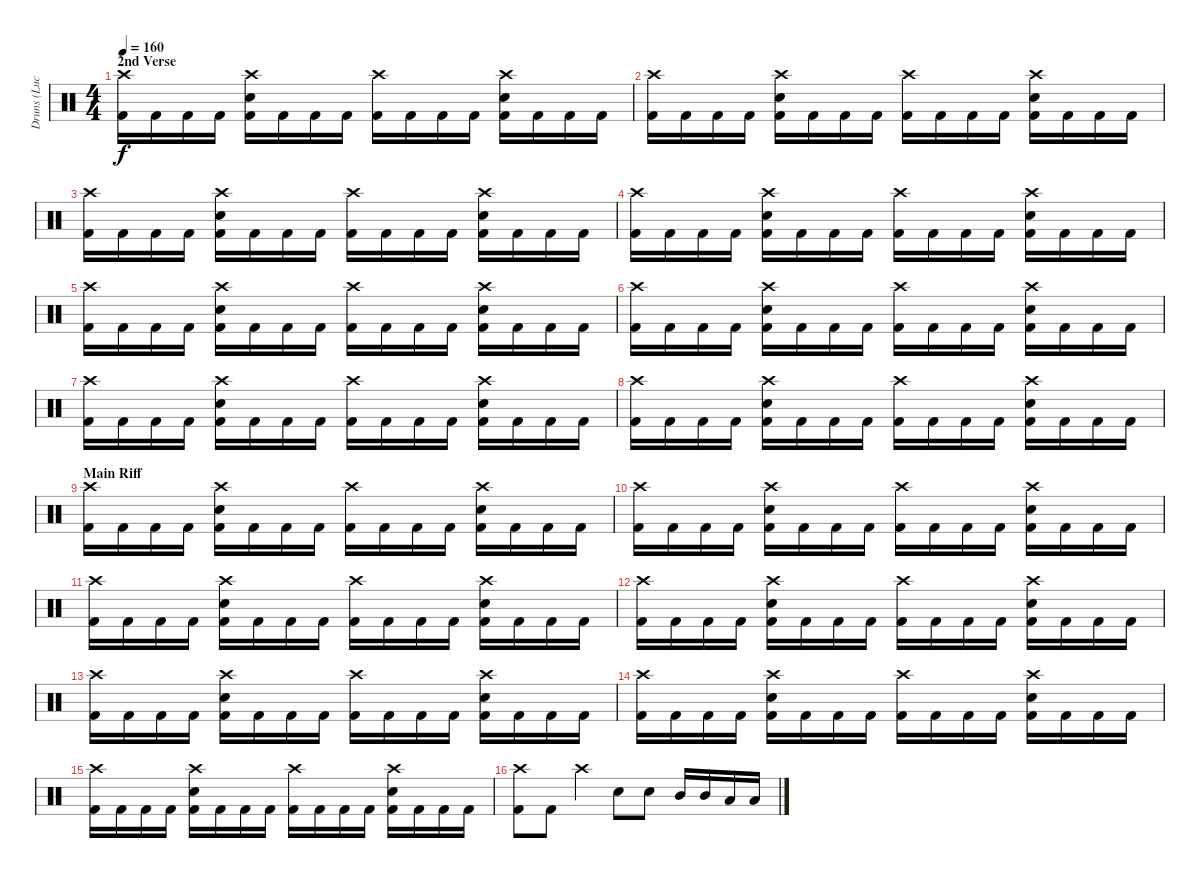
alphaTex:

\track ("Druns (Lucas Zigarti)" "Druns (Luc") {instrument percussion}
\staff {score}
\articulation defaults
\ts (4 4)
\section ("" "2nd Verse ")
\tempo 160
\clef neutral
\ks c
("Crash high (hit)" "Kick (hit) 2").16{dy f} "Kick (hit) 2".16 "Kick (hit) 2".16 "Kick (hit) 2".16 ("Electric Snare (hit)" "Crash high (hit)" "Kick (hit) 2").16 "Kick (hit) 2".16 "Kick (hit) 2".16 "Kick (hit) 2".16 ("Crash high (hit)" "Kick (hit) 2").16 "Kick (hit) 2".16 "Kick (hit) 2".16 "Kick (hit) 2".16 ("Electric Snare (hit)" "Crash high (hit)" "Kick (hit) 2").16 "Kick (hit) 2".16 "Kick (hit) 2".16 "Kick (hit) 2".16 |
("Crash high (hit)" "Kick (hit) 2").16 "Kick (hit) 2".16 "Kick (hit) 2".16 "Kick (hit) 2".16 ("Electric Snare (hit)" "Crash high (hit)" "Kick (hit) 2").16 "Kick (hit) 2".16 "Kick (hit) 2".16 "Kick (hit) 2".16 ("Crash high (hit)" "Kick (hit) 2").16 "Kick (hit) 2".16 "Kick (hit) 2".16 "Kick (hit) 2".16 ("Electric Snare (hit)" "Crash high (hit)" "Kick (hit) 2").16 "Kick (hit) 2".16 "Kick (hit) 2".16 "Kick (hit) 2".16 |
("Crash high (hit)" "Kick (hit) 2").16 "Kick (hit) 2".16 "Kick (hit) 2".16 "Kick (hit) 2".16 ("Electric Snare (hit)" "Crash high (hit)" "Kick (hit) 2").16 "Kick (hit) 2".16 "Kick (hit) 2".16 "Kick (hit) 2".16 ("Crash high (hit)" "Kick (hit) 2").16 "Kick (hit) 2".16 "Kick (hit) 2".16 "Kick (hit) 2".16 ("Electric Snare (hit)" "Crash high (hit)" "Kick (hit) 2").16 "Kick (hit) 2".16 "Kick (hit) 2".16 "Kick (hit) 2".16 |
("Crash high (hit)" "Kick (hit) 2").16 "Kick (hit) 2".16 "Kick (hit) 2".16 "Kick (hit) 2".16 ("Electric Snare (hit)" "Crash high (hit)" "Kick (hit) 2").16 "Kick (hit) 2".16 "Kick (hit) 2".16 "Kick (hit) 2".16 ("Crash high (hit)" "Kick (hit) 2").16 "Kick (hit) 2".16 "Kick (hit) 2".16 "Kick (hit) 2".16 ("Electric Snare (hit)" "Crash high (hit)" "Kick (hit) 2").16 "Kick (hit) 2".16 "Kick (hit) 2".16 "Kick (hit) 2".16 |
("Crash high (hit)" "Kick (hit) 2").16 "Kick (hit) 2".16 "Kick (hit) 2".16 "Kick (hit) 2".16 ("Electric Snare (hit)" "Crash high (hit)" "Kick (hit) 2").16 "Kick (hit) 2".16 "Kick (hit) 2".16 "Kick (hit) 2".16 ("Crash high (hit)" "Kick (hit) 2").16 "Kick (hit) 2".16 "Kick (hit) 2".16 "Kick (hit) 2".16 ("Electric Snare (hit)" "Crash high (hit)" "Kick (hit) 2").16 "Kick (hit) 2".16 "Kick (hit) 2".16 "Kick (hit) 2".16 |
("Crash high (hit)" "Kick (hit) 2").16 "Kick (hit) 2".16 "Kick (hit) 2".16 "Kick (hit) 2".16 ("Electric Snare (hit)" "Crash high (hit)" "Kick (hit) 2").16 "Kick (hit) 2".16 "Kick (hit) 2".16 "Kick (hit) 2".16 ("Crash high (hit)" "Kick (hit) 2").16 "Kick (hit) 2".16 "Kick (hit) 2".16 "Kick (hit) 2".16 ("Electric Snare (hit)" "Crash high (hit)" "Kick (hit) 2").16 "Kick (hit) 2".16 "Kick (hit) 2".16 "Kick (hit) 2".16 |
("Crash high (hit)" "Kick (hit) 2").16 "Kick (hit) 2".16 "Kick (hit) 2".16 "Kick (hit) 2".16 ("Electric Snare (hit)" "Crash high (hit)" "Kick (hit) 2").16 "Kick (hit) 2".16 "Kick (hit) 2".16 "Kick (hit) 2".16 ("Crash high (hit)" "Kick (hit) 2").16 "Kick (hit) 2".16 "Kick (hit) 2".16 "Kick (hit) 2".16 ("Electric Snare (hit)" "Crash high (hit)" "Kick (hit) 2").16 "Kick (hit) 2".16 "Kick (hit) 2".16 "Kick (hit) 2".16 |
("Crash high (hit)" "Kick (hit) 2").16 "Kick (hit) 2".16 "Kick (hit) 2".16 "Kick (hit) 2".16 ("Electric Snare (hit)" "Crash high (hit)" "Kick (hit) 2").16 "Kick (hit) 2".16 "Kick (hit) 2".16 "Kick (hit) 2".16 ("Crash high (hit)" "Kick (hit) 2").16 "Kick (hit) 2".16 "Kick (hit) 2".16 "Kick (hit) 2".16 ("Electric Snare (hit)" "Crash high (hit)" "Kick (hit) 2").16 "Kick (hit) 2".16 "Kick (hit) 2".16 "Kick (hit) 2".16 |
\section ("" "Main Riff")
("Crash high (hit)" "Kick (hit) 2").16 "Kick (hit) 2".16 "Kick (hit) 2".16 "Kick (hit) 2".16 ("Electric Snare (hit)" "Crash high (hit)" "Kick (hit) 2").16 "Kick (hit) 2".16 "Kick (hit) 2".16 "Kick (hit) 2".16 ("Crash high (hit)" "Kick (hit) 2").16 "Kick (hit) 2".16 "Kick (hit) 2".16 "Kick (hit) 2".16 ("Electric Snare (hit)" "Crash high (hit)" "Kick (hit) 2").16 "Kick (hit) 2".16 "Kick (hit) 2".16 "Kick (hit) 2".16 |
("Crash high (hit)" "Kick (hit) 2").16 "Kick (hit) 2".16 "Kick (hit) 2".16 "Kick (hit) 2".16 ("Electric Snare (hit)" "Crash high (hit)" "Kick (hit) 2").16 "Kick (hit) 2".16 "Kick (hit) 2".16 "Kick (hit) 2".16 ("Crash high (hit)" "Kick (hit) 2").16 "Kick (hit) 2".16 "Kick (hit) 2".16 "Kick (hit) 2".16 ("Electric Snare (hit)" "Crash high (hit)" "Kick (hit) 2").16 "Kick (hit) 2".16 "Kick (hit) 2".16 "Kick (hit) 2".16 |
("Crash high (hit)" "Kick (hit) 2").16 "Kick (hit) 2".16 "Kick (hit) 2".16 "Kick (hit) 2".16 ("Electric Snare (hit)" "Crash high (hit)" "Kick (hit) 2").16 "Kick (hit) 2".16 "Kick (hit) 2".16 "Kick (hit) 2".16 ("Crash high (hit)" "Kick (hit) 2").16 "Kick (hit) 2".16 "Kick (hit) 2".16 "Kick (hit) 2".16 ("Electric Snare (hit)" "Crash high (hit)" "Kick (hit) 2").16 "Kick (hit) 2".16 "Kick (hit) 2".16 "Kick (hit) 2".16 |
("Crash high (hit)" "Kick (hit) 2").16 "Kick (hit) 2".16 "Kick (hit) 2".16 "Kick (hit) 2".16 ("Electric Snare (hit)" "Crash high (hit)" "Kick (hit) 2").16 "Kick (hit) 2".16 "Kick (hit) 2".16 "Kick (hit) 2".16 ("Crash high (hit)" "Kick (hit) 2").16 "Kick (hit) 2".16 "Kick (hit) 2".16 "Kick (hit) 2".16 ("Electric Snare (hit)" "Crash high (hit)" "Kick (hit) 2").16 "Kick (hit) 2".16 "Kick (hit) 2".16 "Kick (hit) 2".16 |
("Crash high (hit)" "Kick (hit) 2").16 "Kick (hit) 2".16 "Kick (hit) 2".16 "Kick (hit) 2".16 ("Electric Snare (hit)" "Crash high (hit)" "Kick (hit) 2").16 "Kick (hit) 2".16 "Kick (hit) 2".16 "Kick (hit) 2".16 ("Crash high (hit)" "Kick (hit) 2").16 "Kick (hit) 2".16 "Kick (hit) 2".16 "Kick (hit) 2".16 ("Electric Snare (hit)" "Crash high (hit)" "Kick (hit) 2").16 "Kick (hit) 2".16 "Kick (hit) 2".16 "Kick (hit) 2".16 |
("Crash high (hit)" "Kick (hit) 2").16 "Kick (hit) 2".16 "Kick (hit) 2".16 "Kick (hit) 2".16 ("Electric Snare (hit)" "Crash high (hit)" "Kick (hit) 2").16 "Kick (hit) 2".16 "Kick (hit) 2".16 "Kick (hit) 2".16 ("Crash high (hit)" "Kick (hit) 2").16 "Kick (hit) 2".16 "Kick (hit) 2".16 "Kick (hit) 2".16 ("Electric Snare (hit)" "Crash high (hit)" "Kick (hit) 2").16 "Kick (hit) 2".16 "Kick (hit) 2".16 "Kick (hit) 2".16 |
("Crash high (hit)" "Kick (hit) 2").16 "Kick (hit) 2".16 "Kick (hit) 2".16 "Kick (hit) 2".16 ("Electric Snare (hit)" "Crash high (hit)" "Kick (hit) 2").16 "Kick (hit) 2".16 "Kick (hit) 2".16 "Kick (hit) 2".16 ("Crash high (hit)" "Kick (hit) 2").16 "Kick (hit) 2".16 "Kick (hit) 2".16 "Kick (hit) 2".16 ("Electric Snare (hit)" "Crash high (hit)" "Kick (hit) 2").16 "Kick (hit) 2".16 "Kick (hit) 2".16 "Kick (hit) 2".16 |
("Crash high (hit)" "Kick (hit) 2").8 "Kick (hit) 2".8 "Crash high (hit)".4 "Snare (hit) 2".8 "Snare (hit) 2".8 "Mid Tom (hit)".16 "Mid Tom (hit)".16 "Low Tom (hit)".16 "Low Tom (hit)".16
